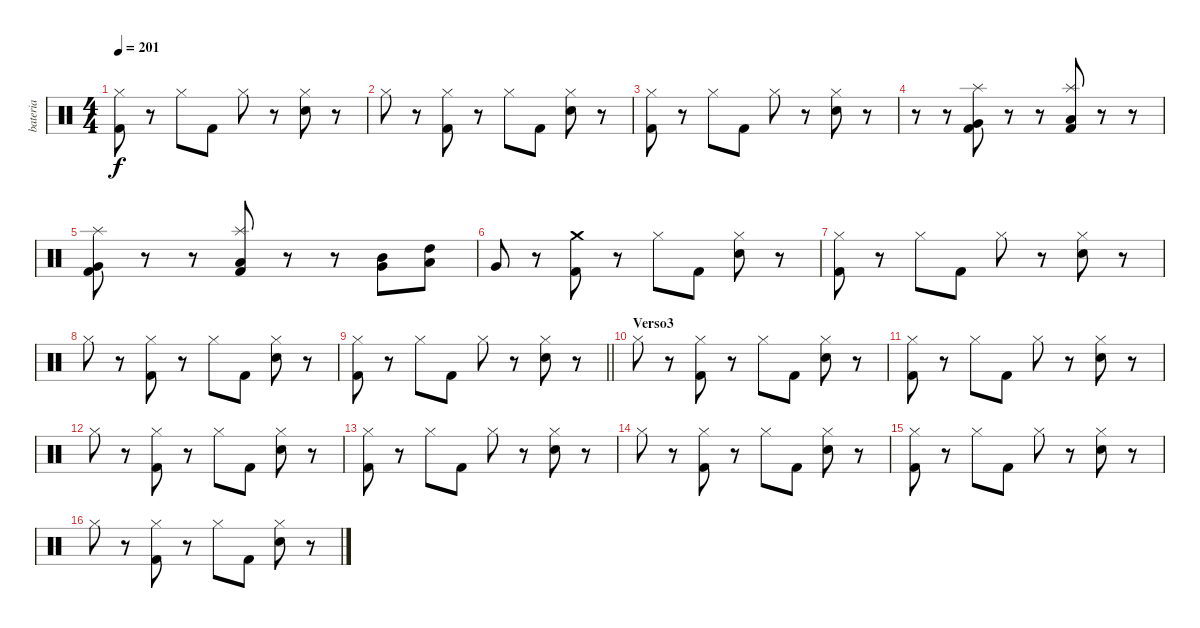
\track ("bateria" "bateria") {solo instrument percussion}
\staff {score}
\articulation defaults
\ts (4 4)
\tempo 201
\clef neutral
\ks c
("Hi-Hat (closed)" "Kick (hit) 2").8{dy f} r.8 "Hi-Hat (closed)".8 "Kick (hit) 2".8 "Hi-Hat (closed)".8 r.8 ("Hi-Hat (closed)" "Electric Snare (hit)").8 r.8 |
"Hi-Hat (closed)".8 r.8 ("Hi-Hat (closed)" "Kick (hit) 2").8 r.8 "Hi-Hat (closed)".8 "Kick (hit) 2".8 ("Hi-Hat (closed)" "Electric Snare (hit)").8 r.8 |
("Hi-Hat (closed)" "Kick (hit) 2").8 r.8 "Hi-Hat (closed)".8 "Kick (hit) 2".8 "Hi-Hat (closed)".8 r.8 ("Hi-Hat (closed)" "Electric Snare (hit)").8 r.8 |
r.8 r.8 ("Very Low Tom (hit)" "Splash (hit)" "Kick (hit) 2").8 r.8 r.8 ("Low Floor Tom (hit)" "Splash (hit)" "Kick (hit) 2").8 r.8 r.8 |
("Very Low Tom (hit)" "Splash (hit)" "Kick (hit) 2").8 r.8 r.8 ("Low Tom (hit)" "Splash (hit)" "Kick (hit) 2").8 r.8 r.8 ("Very Low Tom (hit)" "Mid Tom (hit)").8 ("Low Tom (hit)" "High Tom (hit)").8 |
"Very Low Tom (hit)".8 r.8 ("Crash medium (hit)" "Kick (hit) 2").8 r.8 "Hi-Hat (closed)".8 "Kick (hit) 2".8 ("Hi-Hat (closed)" "Electric Snare (hit)").8 r.8 |
("Hi-Hat (closed)" "Kick (hit) 2").8 r.8 "Hi-Hat (closed)".8 "Kick (hit) 2".8 "Hi-Hat (closed)".8 r.8 ("Hi-Hat (closed)" "Electric Snare (hit)").8 r.8 |
"Hi-Hat (closed)".8 r.8 ("Hi-Hat (closed)" "Kick (hit) 2").8 r.8 "Hi-Hat (closed)".8 "Kick (hit) 2".8 ("Hi-Hat (closed)" "Electric Snare (hit)").8 r.8 |
\barLineRight lightlight
("Hi-Hat (closed)" "Kick (hit) 2").8 r.8 "Hi-Hat (closed)".8 "Kick (hit) 2".8 "Hi-Hat (closed)".8 r.8 ("Hi-Hat (closed)" "Electric Snare (hit)").8 r.8 |
\section ("" "Verso3")
"Hi-Hat (closed)".8 r.8 ("Hi-Hat (closed)" "Kick (hit) 2").8 r.8 "Hi-Hat (closed)".8 "Kick (hit) 2".8 ("Hi-Hat (closed)" "Electric Snare (hit)").8 r.8 |
("Hi-Hat (closed)" "Kick (hit) 2").8 r.8 "Hi-Hat (closed)".8 "Kick (hit) 2".8 "Hi-Hat (closed)".8 r.8 ("Hi-Hat (closed)" "Electric Snare (hit)").8 r.8 |
"Hi-Hat (closed)".8 r.8 ("Hi-Hat (closed)" "Kick (hit) 2").8 r.8 "Hi-Hat (closed)".8 "Kick (hit) 2".8 ("Hi-Hat (closed)" "Electric Snare (hit)").8 r.8 |
("Hi-Hat (closed)" "Kick (hit) 2").8 r.8 "Hi-Hat (closed)".8 "Kick (hit) 2".8 "Hi-Hat (closed)".8 r.8 ("Hi-Hat (closed)" "Electric Snare (hit)").8 r.8 |
"Hi-Hat (closed)".8 r.8 ("Hi-Hat (closed)" "Kick (hit) 2").8 r.8 "Hi-Hat (closed)".8 "Kick (hit) 2".8 ("Hi-Hat (closed)" "Electric Snare (hit)").8 r.8 |
("Hi-Hat (closed)" "Kick (hit) 2").8 r.8 "Hi-Hat (closed)".8 "Kick (hit) 2".8 "Hi-Hat (closed)".8 r.8 ("Hi-Hat (closed)" "Electric Snare (hit)").8 r.8 |
"Hi-Hat (closed)".8 r.8 ("Hi-Hat (closed)" "Kick (hit) 2").8 r.8 "Hi-Hat (closed)".8 "Kick (hit) 2".8 ("Hi-Hat (closed)" "Electric Snare (hit)").8 r.8
